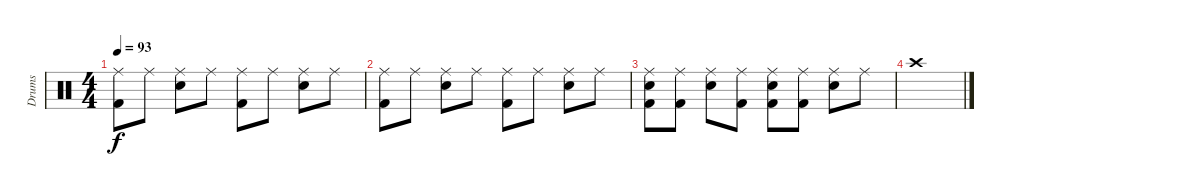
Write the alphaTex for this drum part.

\track ("Drums" "Drums") {instrument percussion}
\staff {score}
\articulation defaults
\ts (4 4)
\tempo 93
\clef neutral
\ks c
("Ride (middle)" "Kick (hit) 2").8{dy f} "Ride (middle)".8 ("Ride (middle)" "Electric Snare (hit)").8 "Ride (middle)".8 ("Ride (middle)" "Kick (hit) 2").8 "Ride (middle)".8 ("Ride (middle)" "Electric Snare (hit)").8 "Ride (middle)".8 |
("Ride (middle)" "Kick (hit) 2").8 "Ride (middle)".8 ("Ride (middle)" "Electric Snare (hit)").8 "Ride (middle)".8 ("Ride (middle)" "Kick (hit) 2").8 "Ride (middle)".8 ("Ride (middle)" "Electric Snare (hit)").8 "Ride (middle)".8 |
("Ride (middle)" "Electric Snare (hit)" "Kick (hit) 2").8 ("Ride (middle)" "Kick (hit) 2").8 ("Ride (middle)" "Electric Snare (hit)").8 ("Ride (middle)" "Kick (hit) 2").8 ("Ride (middle)" "Electric Snare (hit)" "Kick (hit) 2").8 ("Ride (middle)" "Kick (hit) 2").8 ("Ride (middle)" "Electric Snare (hit)").8 "Ride (middle)".8 |
"Crash high (hit)".1
